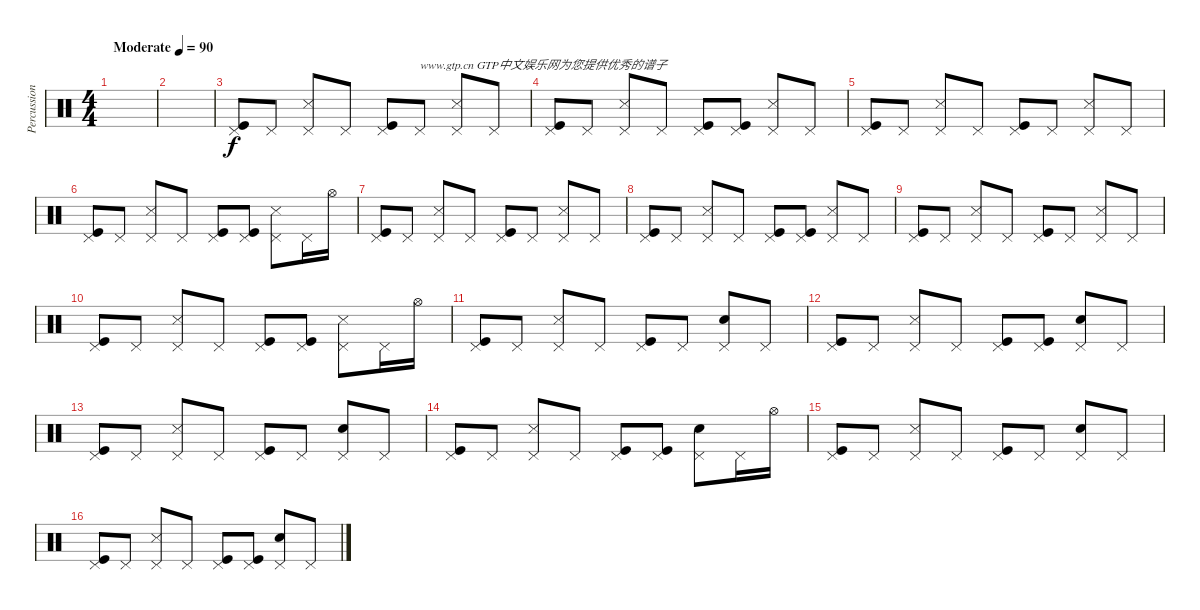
\track ("Percussion" "Percussion") {instrument percussion}
\staff {score}
\articulation defaults
\ts (4 4)
\tempo (90 "Moderate")
\clef neutral
\ks c
|
|
("Pedal Hi-Hat (hit)" "Kick (hit)").8 "Pedal Hi-Hat (hit)".8 ("Pedal Hi-Hat (hit)" "Snare (side stick) 3").8 "Pedal Hi-Hat (hit)".8 ("Pedal Hi-Hat (hit)" "Kick (hit)").8 "Pedal Hi-Hat (hit)".8{txt "www.gtp.cn GTP中文娱乐网为您提供优秀的谱子"} ("Pedal Hi-Hat (hit)" "Snare (side stick) 3").8 "Pedal Hi-Hat (hit)".8 |
("Pedal Hi-Hat (hit)" "Kick (hit)").8 "Pedal Hi-Hat (hit)".8 ("Pedal Hi-Hat (hit)" "Snare (side stick) 3").8 "Pedal Hi-Hat (hit)".8 ("Pedal Hi-Hat (hit)" "Kick (hit)").8 ("Pedal Hi-Hat (hit)" "Kick (hit)").8 ("Pedal Hi-Hat (hit)" "Snare (side stick) 3").8 "Pedal Hi-Hat (hit)".8 |
("Pedal Hi-Hat (hit)" "Kick (hit)").8 "Pedal Hi-Hat (hit)".8 ("Pedal Hi-Hat (hit)" "Snare (side stick) 3").8 "Pedal Hi-Hat (hit)".8 ("Pedal Hi-Hat (hit)" "Kick (hit)").8 "Pedal Hi-Hat (hit)".8 ("Pedal Hi-Hat (hit)" "Snare (side stick) 3").8 "Pedal Hi-Hat (hit)".8 |
("Pedal Hi-Hat (hit)" "Kick (hit)").8 "Pedal Hi-Hat (hit)".8 ("Pedal Hi-Hat (hit)" "Snare (side stick) 3").8 "Pedal Hi-Hat (hit)".8 ("Pedal Hi-Hat (hit)" "Kick (hit)").8 ("Pedal Hi-Hat (hit)" "Kick (hit)").8 ("Pedal Hi-Hat (hit)" "Snare (side stick) 3").8 "Pedal Hi-Hat (hit)".16 "Hi-Hat (open)".16 |
("Pedal Hi-Hat (hit)" "Kick (hit)").8 "Pedal Hi-Hat (hit)".8 ("Pedal Hi-Hat (hit)" "Snare (side stick) 3").8 "Pedal Hi-Hat (hit)".8 ("Pedal Hi-Hat (hit)" "Kick (hit)").8 "Pedal Hi-Hat (hit)".8 ("Pedal Hi-Hat (hit)" "Snare (side stick) 3").8 "Pedal Hi-Hat (hit)".8 |
("Pedal Hi-Hat (hit)" "Kick (hit)").8 "Pedal Hi-Hat (hit)".8 ("Pedal Hi-Hat (hit)" "Snare (side stick) 3").8 "Pedal Hi-Hat (hit)".8 ("Pedal Hi-Hat (hit)" "Kick (hit)").8 ("Pedal Hi-Hat (hit)" "Kick (hit)").8 ("Pedal Hi-Hat (hit)" "Snare (side stick) 3").8 "Pedal Hi-Hat (hit)".8 |
("Pedal Hi-Hat (hit)" "Kick (hit)").8 "Pedal Hi-Hat (hit)".8 ("Pedal Hi-Hat (hit)" "Snare (side stick) 3").8 "Pedal Hi-Hat (hit)".8 ("Pedal Hi-Hat (hit)" "Kick (hit)").8 "Pedal Hi-Hat (hit)".8 ("Pedal Hi-Hat (hit)" "Snare (side stick) 3").8 "Pedal Hi-Hat (hit)".8 |
("Pedal Hi-Hat (hit)" "Kick (hit)").8 "Pedal Hi-Hat (hit)".8 ("Pedal Hi-Hat (hit)" "Snare (side stick) 3").8 "Pedal Hi-Hat (hit)".8 ("Pedal Hi-Hat (hit)" "Kick (hit)").8 ("Pedal Hi-Hat (hit)" "Kick (hit)").8 ("Pedal Hi-Hat (hit)" "Snare (side stick) 3").8 "Pedal Hi-Hat (hit)".16 "Hi-Hat (open)".16 |
("Pedal Hi-Hat (hit)" "Kick (hit)").8 "Pedal Hi-Hat (hit)".8 ("Pedal Hi-Hat (hit)" "Snare (side stick) 3").8 "Pedal Hi-Hat (hit)".8 ("Pedal Hi-Hat (hit)" "Kick (hit)").8 "Pedal Hi-Hat (hit)".8 ("Pedal Hi-Hat (hit)" "Electric Snare (hit)").8 "Pedal Hi-Hat (hit)".8 |
("Pedal Hi-Hat (hit)" "Kick (hit)").8 "Pedal Hi-Hat (hit)".8 ("Pedal Hi-Hat (hit)" "Snare (side stick) 3").8 "Pedal Hi-Hat (hit)".8 ("Pedal Hi-Hat (hit)" "Kick (hit)").8 ("Pedal Hi-Hat (hit)" "Kick (hit)").8 ("Pedal Hi-Hat (hit)" "Electric Snare (hit)").8 "Pedal Hi-Hat (hit)".8 |
("Pedal Hi-Hat (hit)" "Kick (hit)").8 "Pedal Hi-Hat (hit)".8 ("Pedal Hi-Hat (hit)" "Snare (side stick) 3").8 "Pedal Hi-Hat (hit)".8 ("Pedal Hi-Hat (hit)" "Kick (hit)").8 "Pedal Hi-Hat (hit)".8 ("Pedal Hi-Hat (hit)" "Electric Snare (hit)").8 "Pedal Hi-Hat (hit)".8 |
("Pedal Hi-Hat (hit)" "Kick (hit)").8 "Pedal Hi-Hat (hit)".8 ("Pedal Hi-Hat (hit)" "Snare (side stick) 3").8 "Pedal Hi-Hat (hit)".8 ("Pedal Hi-Hat (hit)" "Kick (hit)").8 ("Pedal Hi-Hat (hit)" "Kick (hit)").8 ("Pedal Hi-Hat (hit)" "Electric Snare (hit)").8 "Pedal Hi-Hat (hit)".16 "Hi-Hat (open)".16 |
("Pedal Hi-Hat (hit)" "Kick (hit)").8 "Pedal Hi-Hat (hit)".8 ("Pedal Hi-Hat (hit)" "Snare (side stick) 3").8 "Pedal Hi-Hat (hit)".8 ("Pedal Hi-Hat (hit)" "Kick (hit)").8 "Pedal Hi-Hat (hit)".8 ("Pedal Hi-Hat (hit)" "Electric Snare (hit)").8 "Pedal Hi-Hat (hit)".8 |
("Pedal Hi-Hat (hit)" "Kick (hit)").8 "Pedal Hi-Hat (hit)".8 ("Pedal Hi-Hat (hit)" "Snare (side stick) 3").8 "Pedal Hi-Hat (hit)".8 ("Pedal Hi-Hat (hit)" "Kick (hit)").8 ("Pedal Hi-Hat (hit)" "Kick (hit)").8 ("Pedal Hi-Hat (hit)" "Electric Snare (hit)").8 "Pedal Hi-Hat (hit)".8
